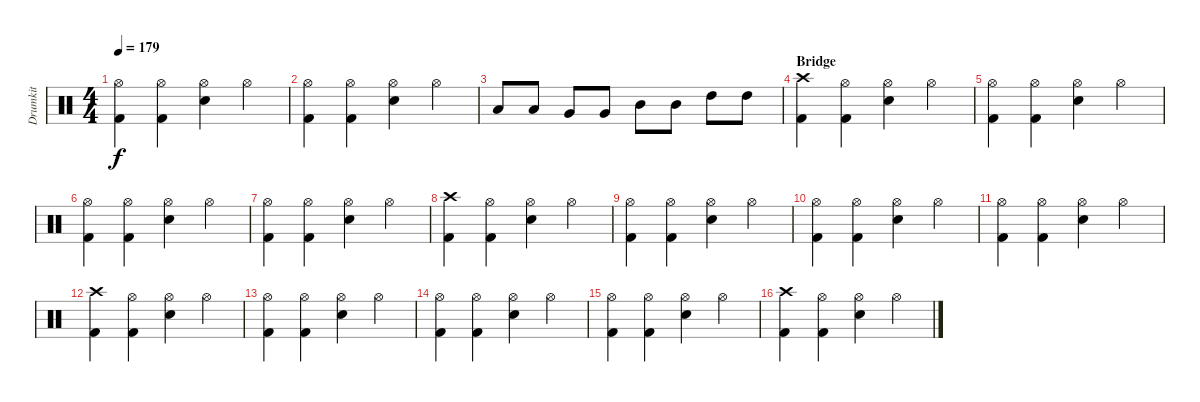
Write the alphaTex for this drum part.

\track ("Drumkit" "Drumkit") {instrument percussion}
\staff {score}
\articulation defaults
\ts (4 4)
\tempo 179
\clef neutral
\ks c
("Kick (hit) 2" "Hi-Hat (open)").4{dy f} ("Kick (hit) 2" "Hi-Hat (open)").4 ("Snare (hit) 2" "Hi-Hat (open)").4 "Hi-Hat (open)".4 |
("Kick (hit) 2" "Hi-Hat (open)").4 ("Kick (hit) 2" "Hi-Hat (open)").4 ("Snare (hit) 2" "Hi-Hat (open)").4 "Hi-Hat (open)".4 |
"Low Floor Tom (hit)".8 "Low Floor Tom (hit)".8 "Very Low Tom (hit)".8 "Very Low Tom (hit)".8 "Mid Tom (hit)".8 "Mid Tom (hit)".8 "High Tom (hit)".8 "High Tom (hit)".8 |
\section ("" "Bridge")
("Kick (hit) 2" "Crash high (hit)").4 ("Kick (hit) 2" "Hi-Hat (open)").4 ("Snare (hit) 2" "Hi-Hat (open)").4 "Hi-Hat (open)".4 |
("Kick (hit) 2" "Hi-Hat (open)").4 ("Kick (hit) 2" "Hi-Hat (open)").4 ("Snare (hit) 2" "Hi-Hat (open)").4 "Hi-Hat (open)".4 |
("Kick (hit) 2" "Hi-Hat (open)").4 ("Kick (hit) 2" "Hi-Hat (open)").4 ("Snare (hit) 2" "Hi-Hat (open)").4 "Hi-Hat (open)".4 |
("Kick (hit) 2" "Hi-Hat (open)").4 ("Kick (hit) 2" "Hi-Hat (open)").4 ("Snare (hit) 2" "Hi-Hat (open)").4 "Hi-Hat (open)".4 |
("Kick (hit) 2" "Crash high (hit)").4 ("Kick (hit) 2" "Hi-Hat (open)").4 ("Snare (hit) 2" "Hi-Hat (open)").4 "Hi-Hat (open)".4 |
("Kick (hit) 2" "Hi-Hat (open)").4 ("Kick (hit) 2" "Hi-Hat (open)").4 ("Snare (hit) 2" "Hi-Hat (open)").4 "Hi-Hat (open)".4 |
("Kick (hit) 2" "Hi-Hat (open)").4 ("Kick (hit) 2" "Hi-Hat (open)").4 ("Snare (hit) 2" "Hi-Hat (open)").4 "Hi-Hat (open)".4 |
("Kick (hit) 2" "Hi-Hat (open)").4 ("Kick (hit) 2" "Hi-Hat (open)").4 ("Snare (hit) 2" "Hi-Hat (open)").4 "Hi-Hat (open)".4 |
("Kick (hit) 2" "Crash high (hit)").4 ("Kick (hit) 2" "Hi-Hat (open)").4 ("Snare (hit) 2" "Hi-Hat (open)").4 "Hi-Hat (open)".4 |
("Kick (hit) 2" "Hi-Hat (open)").4 ("Kick (hit) 2" "Hi-Hat (open)").4 ("Snare (hit) 2" "Hi-Hat (open)").4 "Hi-Hat (open)".4 |
("Kick (hit) 2" "Hi-Hat (open)").4 ("Kick (hit) 2" "Hi-Hat (open)").4 ("Snare (hit) 2" "Hi-Hat (open)").4 "Hi-Hat (open)".4 |
("Kick (hit) 2" "Hi-Hat (open)").4 ("Kick (hit) 2" "Hi-Hat (open)").4 ("Snare (hit) 2" "Hi-Hat (open)").4 "Hi-Hat (open)".4 |
("Kick (hit) 2" "Crash high (hit)").4 ("Kick (hit) 2" "Hi-Hat (open)").4 ("Snare (hit) 2" "Hi-Hat (open)").4 "Hi-Hat (open)".4
